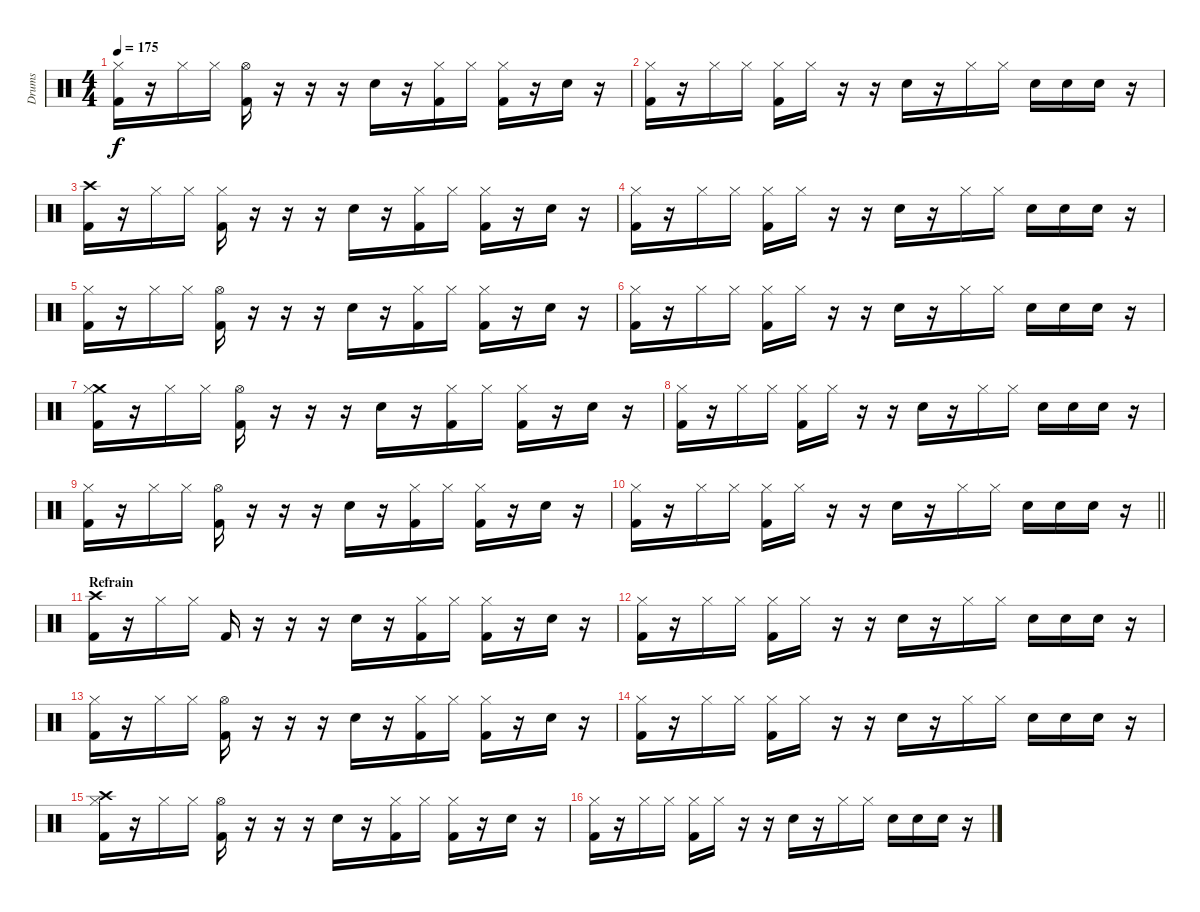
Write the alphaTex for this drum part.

\track ("Drums" "Drums") {instrument percussion}
\staff {score}
\articulation defaults
\ts (4 4)
\tempo 175
\clef neutral
\ks c
("Hi-Hat (closed)" "Kick (hit) 2").16{dy f} r.16 "Hi-Hat (closed)".16 "Hi-Hat (closed)".16 ("Hi-Hat (open)" "Kick (hit) 2").16 r.16 r.16 r.16 "Electric Snare (hit)".16 r.16 ("Hi-Hat (closed)" "Kick (hit) 2").16 "Hi-Hat (closed)".16 ("Hi-Hat (closed)" "Kick (hit) 2").16 r.16 "Electric Snare (hit)".16 r.16 |
("Hi-Hat (closed)" "Kick (hit) 2").16 r.16 "Hi-Hat (closed)".16 "Hi-Hat (closed)".16 ("Hi-Hat (closed)" "Kick (hit) 2").16 "Hi-Hat (closed)".16 r.16 r.16 "Electric Snare (hit)".16 r.16 "Hi-Hat (closed)".16 "Hi-Hat (closed)".16 "Electric Snare (hit)".16 "Electric Snare (hit)".16 "Electric Snare (hit)".16 r.16 |
("Crash high (hit)" "Kick (hit) 2").16 r.16 "Hi-Hat (closed)".16 "Hi-Hat (closed)".16 ("Hi-Hat (closed)" "Kick (hit) 2").16 r.16 r.16 r.16 "Electric Snare (hit)".16 r.16 ("Hi-Hat (closed)" "Kick (hit) 2").16 "Hi-Hat (closed)".16 ("Hi-Hat (closed)" "Kick (hit) 2").16 r.16 "Electric Snare (hit)".16 r.16 |
("Hi-Hat (closed)" "Kick (hit) 2").16 r.16 "Hi-Hat (closed)".16 "Hi-Hat (closed)".16 ("Hi-Hat (closed)" "Kick (hit) 2").16 "Hi-Hat (closed)".16 r.16 r.16 "Electric Snare (hit)".16 r.16 "Hi-Hat (closed)".16 "Hi-Hat (closed)".16 "Electric Snare (hit)".16 "Electric Snare (hit)".16 "Electric Snare (hit)".16 r.16 |
("Hi-Hat (closed)" "Kick (hit) 2").16 r.16 "Hi-Hat (closed)".16 "Hi-Hat (closed)".16 ("Hi-Hat (open)" "Kick (hit) 2").16 r.16 r.16 r.16 "Electric Snare (hit)".16 r.16 ("Hi-Hat (closed)" "Kick (hit) 2").16 "Hi-Hat (closed)".16 ("Hi-Hat (closed)" "Kick (hit) 2").16 r.16 "Electric Snare (hit)".16 r.16 |
("Hi-Hat (closed)" "Kick (hit) 2").16 r.16 "Hi-Hat (closed)".16 "Hi-Hat (closed)".16 ("Hi-Hat (closed)" "Kick (hit) 2").16 "Hi-Hat (closed)".16 r.16 r.16 "Electric Snare (hit)".16 r.16 "Hi-Hat (closed)".16 "Hi-Hat (closed)".16 "Electric Snare (hit)".16 "Electric Snare (hit)".16 "Electric Snare (hit)".16 r.16 |
("Crash medium (hit)" "Hi-Hat (closed)" "Kick (hit) 2").16 r.16 "Hi-Hat (closed)".16 "Hi-Hat (closed)".16 ("Hi-Hat (open)" "Kick (hit) 2").16 r.16 r.16 r.16 "Electric Snare (hit)".16 r.16 ("Hi-Hat (closed)" "Kick (hit) 2").16 "Hi-Hat (closed)".16 ("Hi-Hat (closed)" "Kick (hit) 2").16 r.16 "Electric Snare (hit)".16 r.16 |
("Hi-Hat (closed)" "Kick (hit) 2").16 r.16 "Hi-Hat (closed)".16 "Hi-Hat (closed)".16 ("Hi-Hat (closed)" "Kick (hit) 2").16 "Hi-Hat (closed)".16 r.16 r.16 "Electric Snare (hit)".16 r.16 "Hi-Hat (closed)".16 "Hi-Hat (closed)".16 "Electric Snare (hit)".16 "Electric Snare (hit)".16 "Electric Snare (hit)".16 r.16 |
("Hi-Hat (closed)" "Kick (hit) 2").16 r.16 "Hi-Hat (closed)".16 "Hi-Hat (closed)".16 ("Hi-Hat (open)" "Kick (hit) 2").16 r.16 r.16 r.16 "Electric Snare (hit)".16 r.16 ("Hi-Hat (closed)" "Kick (hit) 2").16 "Hi-Hat (closed)".16 ("Hi-Hat (closed)" "Kick (hit) 2").16 r.16 "Electric Snare (hit)".16 r.16 |
\barLineRight lightlight
("Hi-Hat (closed)" "Kick (hit) 2").16 r.16 "Hi-Hat (closed)".16 "Hi-Hat (closed)".16 ("Hi-Hat (closed)" "Kick (hit) 2").16 "Hi-Hat (closed)".16 r.16 r.16 "Electric Snare (hit)".16 r.16 "Hi-Hat (closed)".16 "Hi-Hat (closed)".16 "Electric Snare (hit)".16 "Electric Snare (hit)".16 "Electric Snare (hit)".16 r.16 |
\section ("" "Refrain")
("Crash high (hit)" "Kick (hit) 2").16 r.16 "Hi-Hat (closed)".16 "Hi-Hat (closed)".16 "Kick (hit) 2".16 r.16 r.16 r.16 "Electric Snare (hit)".16 r.16 ("Hi-Hat (closed)" "Kick (hit) 2").16 "Hi-Hat (closed)".16 ("Hi-Hat (closed)" "Kick (hit) 2").16 r.16 "Electric Snare (hit)".16 r.16 |
("Hi-Hat (closed)" "Kick (hit) 2").16 r.16 "Hi-Hat (closed)".16 "Hi-Hat (closed)".16 ("Hi-Hat (closed)" "Kick (hit) 2").16 "Hi-Hat (closed)".16 r.16 r.16 "Electric Snare (hit)".16 r.16 "Hi-Hat (closed)".16 "Hi-Hat (closed)".16 "Electric Snare (hit)".16 "Electric Snare (hit)".16 "Electric Snare (hit)".16 r.16 |
("Hi-Hat (closed)" "Kick (hit) 2").16 r.16 "Hi-Hat (closed)".16 "Hi-Hat (closed)".16 ("Hi-Hat (open)" "Kick (hit) 2").16 r.16 r.16 r.16 "Electric Snare (hit)".16 r.16 ("Hi-Hat (closed)" "Kick (hit) 2").16 "Hi-Hat (closed)".16 ("Hi-Hat (closed)" "Kick (hit) 2").16 r.16 "Electric Snare (hit)".16 r.16 |
("Hi-Hat (closed)" "Kick (hit) 2").16 r.16 "Hi-Hat (closed)".16 "Hi-Hat (closed)".16 ("Hi-Hat (closed)" "Kick (hit) 2").16 "Hi-Hat (closed)".16 r.16 r.16 "Electric Snare (hit)".16 r.16 "Hi-Hat (closed)".16 "Hi-Hat (closed)".16 "Electric Snare (hit)".16 "Electric Snare (hit)".16 "Electric Snare (hit)".16 r.16 |
("Crash high (hit)" "Hi-Hat (closed)" "Kick (hit) 2").16 r.16 "Hi-Hat (closed)".16 "Hi-Hat (closed)".16 ("Hi-Hat (open)" "Kick (hit) 2").16 r.16 r.16 r.16 "Electric Snare (hit)".16 r.16 ("Hi-Hat (closed)" "Kick (hit) 2").16 "Hi-Hat (closed)".16 ("Hi-Hat (closed)" "Kick (hit) 2").16 r.16 "Electric Snare (hit)".16 r.16 |
("Hi-Hat (closed)" "Kick (hit) 2").16 r.16 "Hi-Hat (closed)".16 "Hi-Hat (closed)".16 ("Hi-Hat (closed)" "Kick (hit) 2").16 "Hi-Hat (closed)".16 r.16 r.16 "Electric Snare (hit)".16 r.16 "Hi-Hat (closed)".16 "Hi-Hat (closed)".16 "Electric Snare (hit)".16 "Electric Snare (hit)".16 "Electric Snare (hit)".16 r.16
